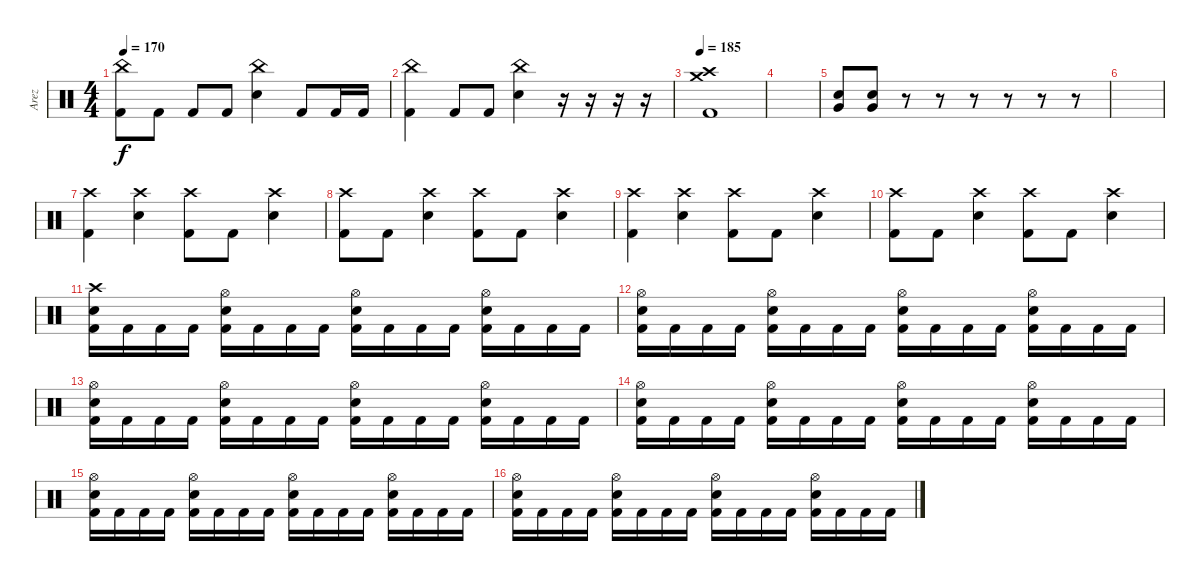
\track ("Arez" "Arez") {instrument percussion}
\staff {score}
\articulation defaults
\ts (4 4)
\tempo 170
\clef neutral
\ks c
("China (hit)" "Kick (hit) 2").8{dy f} "Kick (hit) 2".8 "Kick (hit) 2".8 "Kick (hit) 2".8 ("China (hit)" "Electric Snare (hit)").4 "Kick (hit) 2".8 "Kick (hit) 2".16 "Kick (hit) 2".16 |
("China (hit)" "Kick (hit) 2").4 "Kick (hit) 2".8 "Kick (hit) 2".8 ("Electric Snare (hit)" "China (hit)").4 r.16 r.16 r.16 r.16 |
\tempo 185
("Crash high (hit)" "Crash medium (hit)" "Kick (hit) 2").1 |
|
("Electric Snare (hit)" "Very Low Tom (hit)").8 ("Very Low Tom (hit)" "Electric Snare (hit)").8 r.8 r.8 r.8 r.8 r.8 r.8 |
|
("Crash high (hit)" "Kick (hit) 2").4 ("Electric Snare (hit)" "Crash high (hit)").4 ("Crash high (hit)" "Kick (hit) 2").8 "Kick (hit) 2".8 ("Electric Snare (hit)" "Crash high (hit)").4 |
("Crash high (hit)" "Kick (hit) 2").8 "Kick (hit) 2".8 ("Electric Snare (hit)" "Crash high (hit)").4 ("Crash high (hit)" "Kick (hit) 2").8 "Kick (hit) 2".8 ("Electric Snare (hit)" "Crash high (hit)").4 |
("Crash high (hit)" "Kick (hit) 2").4 ("Electric Snare (hit)" "Crash high (hit)").4 ("Crash high (hit)" "Kick (hit) 2").8 "Kick (hit) 2".8 ("Electric Snare (hit)" "Crash high (hit)").4 |
("Crash high (hit)" "Kick (hit) 2").8 "Kick (hit) 2".8 ("Electric Snare (hit)" "Crash high (hit)").4 ("Crash high (hit)" "Kick (hit) 2").8 "Kick (hit) 2".8 ("Electric Snare (hit)" "Crash high (hit)").4 |
("Crash high (hit)" "Electric Snare (hit)" "Kick (hit) 2").16 "Kick (hit) 2".16 "Kick (hit) 2".16 "Kick (hit) 2".16 ("Kick (hit) 2" "Electric Snare (hit)" "Hi-Hat (open)").16 "Kick (hit) 2".16 "Kick (hit) 2".16 "Kick (hit) 2".16 ("Kick (hit) 2" "Hi-Hat (open)" "Electric Snare (hit)").16 "Kick (hit) 2".16 "Kick (hit) 2".16 "Kick (hit) 2".16 ("Kick (hit) 2" "Electric Snare (hit)" "Hi-Hat (open)").16 "Kick (hit) 2".16 "Kick (hit) 2".16 "Kick (hit) 2".16 |
("Kick (hit) 2" "Electric Snare (hit)" "Hi-Hat (open)").16 "Kick (hit) 2".16 "Kick (hit) 2".16 "Kick (hit) 2".16 ("Kick (hit) 2" "Hi-Hat (open)" "Electric Snare (hit)").16 "Kick (hit) 2".16 "Kick (hit) 2".16 "Kick (hit) 2".16 ("Kick (hit) 2" "Electric Snare (hit)" "Hi-Hat (open)").16 "Kick (hit) 2".16 "Kick (hit) 2".16 "Kick (hit) 2".16 ("Kick (hit) 2" "Electric Snare (hit)" "Hi-Hat (open)").16 "Kick (hit) 2".16 "Kick (hit) 2".16 "Kick (hit) 2".16 |
("Kick (hit) 2" "Electric Snare (hit)" "Hi-Hat (open)").16 "Kick (hit) 2".16 "Kick (hit) 2".16 "Kick (hit) 2".16 ("Kick (hit) 2" "Hi-Hat (open)" "Electric Snare (hit)").16 "Kick (hit) 2".16 "Kick (hit) 2".16 "Kick (hit) 2".16 ("Kick (hit) 2" "Electric Snare (hit)" "Hi-Hat (open)").16 "Kick (hit) 2".16 "Kick (hit) 2".16 "Kick (hit) 2".16 ("Kick (hit) 2" "Electric Snare (hit)" "Hi-Hat (open)").16 "Kick (hit) 2".16 "Kick (hit) 2".16 "Kick (hit) 2".16 |
("Kick (hit) 2" "Electric Snare (hit)" "Hi-Hat (open)").16 "Kick (hit) 2".16 "Kick (hit) 2".16 "Kick (hit) 2".16 ("Kick (hit) 2" "Hi-Hat (open)" "Electric Snare (hit)").16 "Kick (hit) 2".16 "Kick (hit) 2".16 "Kick (hit) 2".16 ("Kick (hit) 2" "Electric Snare (hit)" "Hi-Hat (open)").16 "Kick (hit) 2".16 "Kick (hit) 2".16 "Kick (hit) 2".16 ("Kick (hit) 2" "Electric Snare (hit)" "Hi-Hat (open)").16 "Kick (hit) 2".16 "Kick (hit) 2".16 "Kick (hit) 2".16 |
("Kick (hit) 2" "Electric Snare (hit)" "Hi-Hat (open)").16 "Kick (hit) 2".16 "Kick (hit) 2".16 "Kick (hit) 2".16 ("Kick (hit) 2" "Hi-Hat (open)" "Electric Snare (hit)").16 "Kick (hit) 2".16 "Kick (hit) 2".16 "Kick (hit) 2".16 ("Kick (hit) 2" "Electric Snare (hit)" "Hi-Hat (open)").16 "Kick (hit) 2".16 "Kick (hit) 2".16 "Kick (hit) 2".16 ("Kick (hit) 2" "Electric Snare (hit)" "Hi-Hat (open)").16 "Kick (hit) 2".16 "Kick (hit) 2".16 "Kick (hit) 2".16 |
("Kick (hit) 2" "Electric Snare (hit)" "Hi-Hat (open)").16 "Kick (hit) 2".16 "Kick (hit) 2".16 "Kick (hit) 2".16 ("Kick (hit) 2" "Hi-Hat (open)" "Electric Snare (hit)").16 "Kick (hit) 2".16 "Kick (hit) 2".16 "Kick (hit) 2".16 ("Kick (hit) 2" "Electric Snare (hit)" "Hi-Hat (open)").16 "Kick (hit) 2".16 "Kick (hit) 2".16 "Kick (hit) 2".16 ("Kick (hit) 2" "Electric Snare (hit)" "Hi-Hat (open)").16 "Kick (hit) 2".16 "Kick (hit) 2".16 "Kick (hit) 2".16
